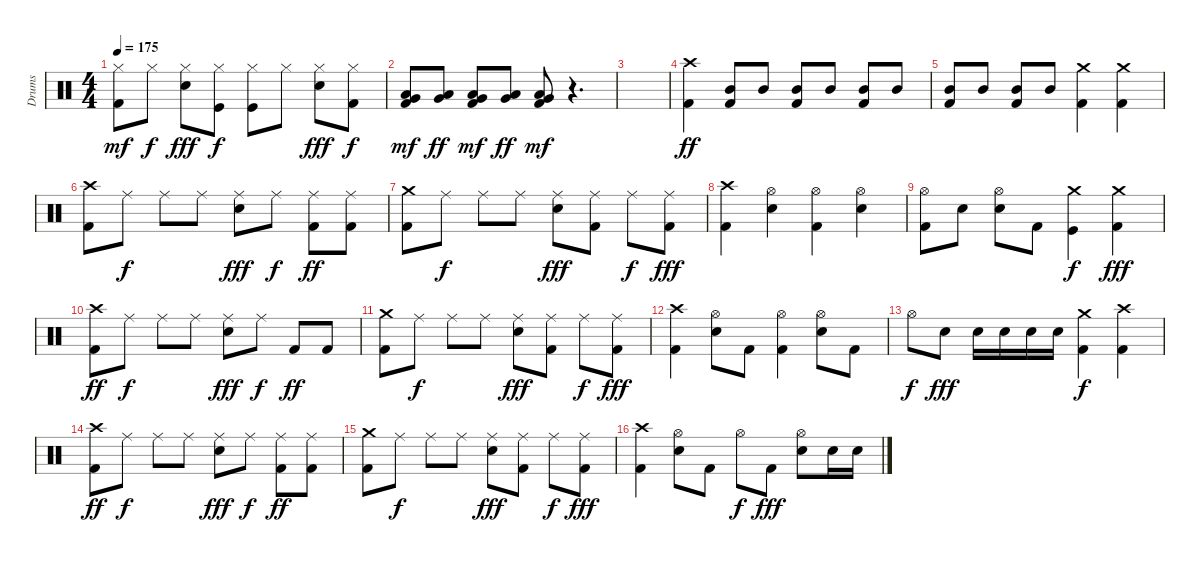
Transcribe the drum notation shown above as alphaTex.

\track ("Drums" "Drums") {instrument percussion}
\staff {score}
\articulation defaults
\ts (4 4)
\tempo 175
\clef neutral
\ks c
("Hi-Hat (closed)" "Kick (hit) 2").8{dy mf} "Hi-Hat (closed)".8{dy f} ("Hi-Hat (closed)" "Snare (hit) 2").8{dy fff} ("Hi-Hat (closed)" "Kick (hit)").8{dy f} ("Hi-Hat (closed)" "Kick (hit)").8 "Hi-Hat (closed)".8 ("Hi-Hat (closed)" "Snare (hit) 2").8{dy fff} ("Hi-Hat (closed)" "Kick (hit) 2").8{dy f} |
("Low Tom (hit)" "Very Low Tom (hit)" "Kick (hit) 2").8{dy mf} ("Low Tom (hit)" "Very Low Tom (hit)").8{dy ff} ("Low Tom (hit)" "Very Low Tom (hit)" "Kick (hit) 2").8{dy mf} ("Low Tom (hit)" "Very Low Tom (hit)").8{dy ff} ("Low Tom (hit)" "Very Low Tom (hit)" "Kick (hit) 2").8{dy mf} r.4{d} |
|
("Crash high (hit)" "Kick (hit) 2").4{dy ff} ("Mid Tom (hit)" "Kick (hit) 2").8 "Mid Tom (hit)".8 ("Mid Tom (hit)" "Kick (hit) 2").8 "Mid Tom (hit)".8 ("Mid Tom (hit)" "Kick (hit) 2").8 "Mid Tom (hit)".8 |
("Mid Tom (hit)" "Kick (hit) 2").8 "Mid Tom (hit)".8 ("Mid Tom (hit)" "Kick (hit) 2").8 "Mid Tom (hit)".8 ("Crash medium (hit)" "Kick (hit) 2").4 ("Crash medium (hit)" "Kick (hit) 2").4 |
("Crash high (hit)" "Kick (hit) 2").8 "Ride (middle)".8{dy f} "Ride (middle)".8 "Ride (middle)".8 ("Ride (middle)" "Snare (hit) 2").8{dy fff} "Ride (middle)".8{dy f} ("Ride (middle)" "Kick (hit) 2").8{dy ff} ("Ride (middle)" "Kick (hit) 2").8 |
("Crash medium (hit)" "Kick (hit) 2").8 "Ride (middle)".8{dy f} "Ride (middle)".8 "Ride (middle)".8 ("Ride (middle)" "Snare (hit) 2").8{dy fff} ("Ride (middle)" "Kick (hit) 2").8 "Ride (middle)".8{dy f} ("Ride (middle)" "Kick (hit) 2").8{dy fff} |
("Crash high (hit)" "Kick (hit) 2").4 ("Hi-Hat (open)" "Snare (hit) 2").4 ("Hi-Hat (open)" "Kick (hit) 2").4 ("Hi-Hat (open)" "Snare (hit) 2").4 |
("Hi-Hat (open)" "Kick (hit) 2").8 "Snare (hit) 2".8 ("Hi-Hat (open)" "Snare (hit) 2").8 "Kick (hit) 2".8 ("Crash medium (hit)" "Kick (hit)").4{dy f} ("Crash medium (hit)" "Kick (hit) 2").4{dy fff} |
("Crash high (hit)" "Kick (hit) 2").8{dy ff} "Ride (middle)".8{dy f} "Ride (middle)".8 "Ride (middle)".8 ("Ride (middle)" "Snare (hit) 2").8{dy fff} "Ride (middle)".8{dy f} "Kick (hit) 2".8{dy ff} "Kick (hit) 2".8 |
("Crash medium (hit)" "Kick (hit) 2").8 "Ride (middle)".8{dy f} "Ride (middle)".8 "Ride (middle)".8 ("Ride (middle)" "Snare (hit) 2").8{dy fff} ("Ride (middle)" "Kick (hit) 2").8 "Ride (middle)".8{dy f} ("Ride (middle)" "Kick (hit) 2").8{dy fff} |
("Crash high (hit)" "Kick (hit) 2").4 ("Hi-Hat (open)" "Snare (hit) 2").8 "Kick (hit) 2".8 ("Hi-Hat (open)" "Kick (hit) 2").4 ("Hi-Hat (open)" "Snare (hit) 2").8 "Kick (hit) 2".8 |
"Hi-Hat (open)".8{dy f} "Snare (hit) 2".8{dy fff} "Snare (hit) 2".16 "Snare (hit) 2".16 "Snare (hit) 2".16 "Snare (hit) 2".16 ("Crash medium (hit)" "Kick (hit) 2").4{dy f} ("Crash high (hit)" "Kick (hit) 2").4 |
("Crash high (hit)" "Kick (hit) 2").8{dy ff} "Ride (middle)".8{dy f} "Ride (middle)".8 "Ride (middle)".8 ("Ride (middle)" "Snare (hit) 2").8{dy fff} "Ride (middle)".8{dy f} ("Ride (middle)" "Kick (hit) 2").8{dy ff} ("Ride (middle)" "Kick (hit) 2").8 |
("Crash medium (hit)" "Kick (hit) 2").8 "Ride (middle)".8{dy f} "Ride (middle)".8 "Ride (middle)".8 ("Ride (middle)" "Snare (hit) 2").8{dy fff} ("Ride (middle)" "Kick (hit) 2").8 "Ride (middle)".8{dy f} ("Ride (middle)" "Kick (hit) 2").8{dy fff} |
("Crash high (hit)" "Kick (hit) 2").4 ("Hi-Hat (open)" "Snare (hit) 2").8 "Kick (hit) 2".8 "Hi-Hat (open)".8{dy f} "Kick (hit) 2".8{dy fff} ("Hi-Hat (open)" "Snare (hit) 2").8 "Snare (hit) 2".16 "Snare (hit) 2".16
